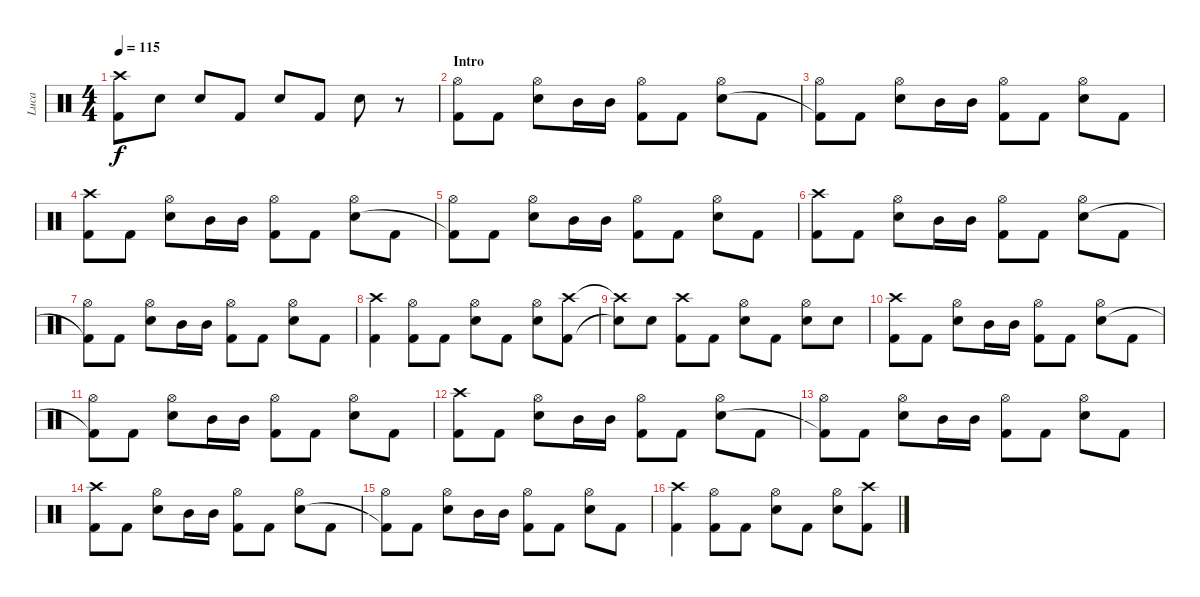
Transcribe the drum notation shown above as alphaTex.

\track ("Luca" "Luca") {instrument percussion}
\staff {score}
\articulation defaults
\ts (4 4)
\tempo 115
\clef neutral
\ks c
("Crash high (hit)" "Kick (hit) 2").8{dy f} "Snare (hit) 2".8 "Snare (hit) 2".8 "Kick (hit) 2".8 "Snare (hit) 2".8 "Kick (hit) 2".8 "Snare (hit) 2".8 r.8 |
\section ("" "Intro")
("Hi-Hat (open)" "Kick (hit) 2").8 "Kick (hit) 2".8 ("Hi-Hat (open)" "Snare (hit) 2").8 "Mid Tom (hit)".16 "Mid Tom (hit)".16 ("Hi-Hat (open)" "Kick (hit) 2").8 "Kick (hit) 2".8 ("Hi-Hat (open)" "Snare (hit) 2").8 "Kick (hit) 2".8 |
("Hi-Hat (open)" "Kick (hit) 2"{t}).8 "Kick (hit) 2".8 ("Hi-Hat (open)" "Snare (hit) 2").8 "Mid Tom (hit)".16 "Mid Tom (hit)".16 ("Hi-Hat (open)" "Kick (hit) 2").8 "Kick (hit) 2".8 ("Hi-Hat (open)" "Snare (hit) 2").8 "Kick (hit) 2".8 |
("Crash high (hit)" "Kick (hit) 2").8 "Kick (hit) 2".8 ("Hi-Hat (open)" "Snare (hit) 2").8 "Mid Tom (hit)".16 "Mid Tom (hit)".16 ("Hi-Hat (open)" "Kick (hit) 2").8 "Kick (hit) 2".8 ("Hi-Hat (open)" "Snare (hit) 2").8 "Kick (hit) 2".8 |
("Hi-Hat (open)" "Kick (hit) 2"{t}).8 "Kick (hit) 2".8 ("Hi-Hat (open)" "Snare (hit) 2").8 "Mid Tom (hit)".16 "Mid Tom (hit)".16 ("Hi-Hat (open)" "Kick (hit) 2").8 "Kick (hit) 2".8 ("Hi-Hat (open)" "Snare (hit) 2").8 "Kick (hit) 2".8 |
("Crash high (hit)" "Kick (hit) 2").8 "Kick (hit) 2".8 ("Hi-Hat (open)" "Snare (hit) 2").8 "Mid Tom (hit)".16 "Mid Tom (hit)".16 ("Hi-Hat (open)" "Kick (hit) 2").8 "Kick (hit) 2".8 ("Hi-Hat (open)" "Snare (hit) 2").8 "Kick (hit) 2".8 |
("Hi-Hat (open)" "Kick (hit) 2"{t}).8 "Kick (hit) 2".8 ("Hi-Hat (open)" "Snare (hit) 2").8 "Mid Tom (hit)".16 "Mid Tom (hit)".16 ("Hi-Hat (open)" "Kick (hit) 2").8 "Kick (hit) 2".8 ("Hi-Hat (open)" "Snare (hit) 2").8 "Kick (hit) 2".8 |
("Crash high (hit)" "Kick (hit) 2").4 ("Hi-Hat (open)" "Kick (hit) 2").8 "Kick (hit) 2".8 ("Hi-Hat (open)" "Snare (hit) 2").8 "Kick (hit) 2".8 ("Hi-Hat (open)" "Snare (hit) 2").8 ("Crash high (hit)" "Kick (hit) 2").8 |
("Crash high (hit)"{t} "Snare (hit)"{t}).8 "Snare (hit) 2".8 ("Crash high (hit)" "Kick (hit) 2").8 "Kick (hit) 2".8 ("Hi-Hat (open)" "Snare (hit) 2").8 "Kick (hit) 2".8 ("Hi-Hat (open)" "Snare (hit) 2").8 "Snare (hit) 2".8 |
("Crash high (hit)" "Kick (hit) 2").8 "Kick (hit) 2".8 ("Hi-Hat (open)" "Snare (hit) 2").8 "Mid Tom (hit)".16 "Mid Tom (hit)".16 ("Hi-Hat (open)" "Kick (hit) 2").8 "Kick (hit) 2".8 ("Hi-Hat (open)" "Snare (hit) 2").8 "Kick (hit) 2".8 |
("Hi-Hat (open)" "Kick (hit) 2"{t}).8 "Kick (hit) 2".8 ("Hi-Hat (open)" "Snare (hit) 2").8 "Mid Tom (hit)".16 "Mid Tom (hit)".16 ("Hi-Hat (open)" "Kick (hit) 2").8 "Kick (hit) 2".8 ("Hi-Hat (open)" "Snare (hit) 2").8 "Kick (hit) 2".8 |
("Crash high (hit)" "Kick (hit) 2").8 "Kick (hit) 2".8 ("Hi-Hat (open)" "Snare (hit) 2").8 "Mid Tom (hit)".16 "Mid Tom (hit)".16 ("Hi-Hat (open)" "Kick (hit) 2").8 "Kick (hit) 2".8 ("Hi-Hat (open)" "Snare (hit) 2").8 "Kick (hit) 2".8 |
("Hi-Hat (open)" "Kick (hit) 2"{t}).8 "Kick (hit) 2".8 ("Hi-Hat (open)" "Snare (hit) 2").8 "Mid Tom (hit)".16 "Mid Tom (hit)".16 ("Hi-Hat (open)" "Kick (hit) 2").8 "Kick (hit) 2".8 ("Hi-Hat (open)" "Snare (hit) 2").8 "Kick (hit) 2".8 |
("Crash high (hit)" "Kick (hit) 2").8 "Kick (hit) 2".8 ("Hi-Hat (open)" "Snare (hit) 2").8 "Mid Tom (hit)".16 "Mid Tom (hit)".16 ("Hi-Hat (open)" "Kick (hit) 2").8 "Kick (hit) 2".8 ("Hi-Hat (open)" "Snare (hit) 2").8 "Kick (hit) 2".8 |
("Hi-Hat (open)" "Kick (hit) 2"{t}).8 "Kick (hit) 2".8 ("Hi-Hat (open)" "Snare (hit) 2").8 "Mid Tom (hit)".16 "Mid Tom (hit)".16 ("Hi-Hat (open)" "Kick (hit) 2").8 "Kick (hit) 2".8 ("Hi-Hat (open)" "Snare (hit) 2").8 "Kick (hit) 2".8 |
("Crash high (hit)" "Kick (hit) 2").4 ("Hi-Hat (open)" "Kick (hit) 2").8 "Kick (hit) 2".8 ("Hi-Hat (open)" "Snare (hit) 2").8 "Kick (hit) 2".8 ("Hi-Hat (open)" "Snare (hit) 2").8 ("Crash high (hit)" "Kick (hit) 2").8
